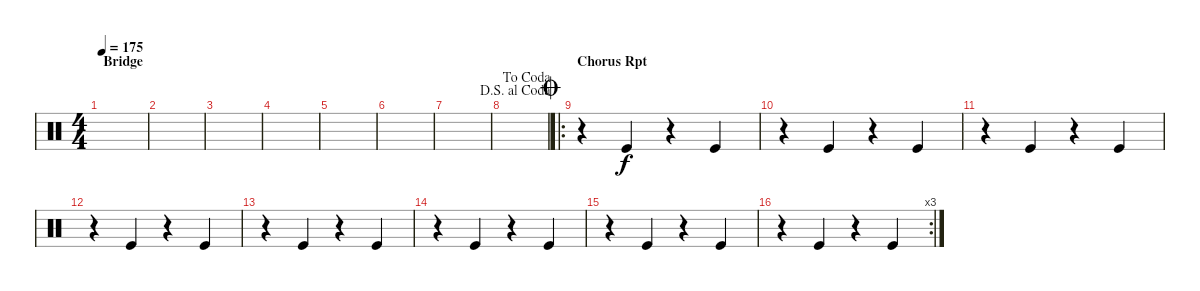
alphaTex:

\defaultSystemsLayout 4
\bracketExtendMode nobrackets
\singleTrackTrackNamePolicy hidden
\multiTrackTrackNamePolicy hidden
\firstSystemTrackNameOrientation horizontal
\otherSystemsTrackNameOrientation horizontal
\track ("Tambourine" "Tamb.") {instrument percussion}
\staff {score}
\articulation defaults
\ts (4 4)
\section ("" "Bridge")
\tempo 175
\clef neutral
\ks c
|
|
|
|
|
|
|
\jump dalsegnoalcoda
\jump dacoda
|
\ro
\section ("" "Chorus Rpt")
\jump coda
r.4 "Kick (hit)".4 r.4 "Kick (hit)".4 |
r.4 "Kick (hit)".4 r.4 "Kick (hit)".4 |
r.4 "Kick (hit)".4 r.4 "Kick (hit)".4 |
r.4 "Kick (hit)".4 r.4 "Kick (hit)".4 |
r.4 "Kick (hit)".4 r.4 "Kick (hit)".4 |
r.4 "Kick (hit)".4 r.4 "Kick (hit)".4 |
r.4 "Kick (hit)".4 r.4 "Kick (hit)".4 |
\rc 3
r.4 "Kick (hit)".4 r.4 "Kick (hit)".4
